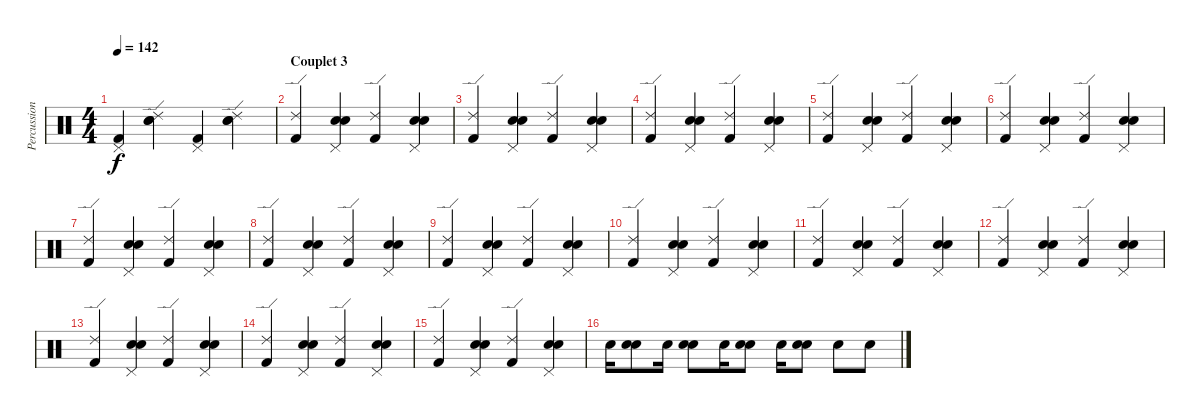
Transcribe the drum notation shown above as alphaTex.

\track ("Percussions" "Percussion") {instrument percussion}
\staff {score}
\articulation defaults
\ts (4 4)
\tempo 142
\clef neutral
\ks c
("Kick (hit) 2" "Pedal Hi-Hat (hit)").4{dy f} ("Snare (hit) 2" "Electric Snare (hit)" "Ride (edge) 2").4 ("Kick (hit) 2" "Pedal Hi-Hat (hit)").4 ("Snare (hit) 2" "Electric Snare (hit)" "Ride (edge) 2").4 |
\section ("" "Couplet 3")
("Kick (hit) 2" "Ride (edge) 2").4 ("Snare (hit) 2" "Electric Snare (hit)" "Pedal Hi-Hat (hit)").4 ("Kick (hit) 2" "Ride (edge) 2").4 ("Snare (hit) 2" "Electric Snare (hit)" "Pedal Hi-Hat (hit)").4 |
("Kick (hit) 2" "Ride (edge) 2").4 ("Snare (hit) 2" "Electric Snare (hit)" "Pedal Hi-Hat (hit)").4 ("Kick (hit) 2" "Ride (edge) 2").4 ("Snare (hit) 2" "Electric Snare (hit)" "Pedal Hi-Hat (hit)").4 |
("Kick (hit) 2" "Ride (edge) 2").4 ("Snare (hit) 2" "Electric Snare (hit)" "Pedal Hi-Hat (hit)").4 ("Kick (hit) 2" "Ride (edge) 2").4 ("Snare (hit) 2" "Electric Snare (hit)" "Pedal Hi-Hat (hit)").4 |
("Kick (hit) 2" "Ride (edge) 2").4 ("Snare (hit) 2" "Electric Snare (hit)" "Pedal Hi-Hat (hit)").4 ("Kick (hit) 2" "Ride (edge) 2").4 ("Snare (hit) 2" "Electric Snare (hit)" "Pedal Hi-Hat (hit)").4 |
("Kick (hit) 2" "Ride (edge) 2").4 ("Snare (hit) 2" "Electric Snare (hit)" "Pedal Hi-Hat (hit)").4 ("Kick (hit) 2" "Ride (edge) 2").4 ("Snare (hit) 2" "Electric Snare (hit)" "Pedal Hi-Hat (hit)").4 |
("Kick (hit) 2" "Ride (edge) 2").4 ("Snare (hit) 2" "Electric Snare (hit)" "Pedal Hi-Hat (hit)").4 ("Kick (hit) 2" "Ride (edge) 2").4 ("Snare (hit) 2" "Electric Snare (hit)" "Pedal Hi-Hat (hit)").4 |
("Kick (hit) 2" "Ride (edge) 2").4 ("Snare (hit) 2" "Electric Snare (hit)" "Pedal Hi-Hat (hit)").4 ("Kick (hit) 2" "Ride (edge) 2").4 ("Snare (hit) 2" "Electric Snare (hit)" "Pedal Hi-Hat (hit)").4 |
("Kick (hit) 2" "Ride (edge) 2").4 ("Snare (hit) 2" "Electric Snare (hit)" "Pedal Hi-Hat (hit)").4 ("Kick (hit) 2" "Ride (edge) 2").4 ("Snare (hit) 2" "Electric Snare (hit)" "Pedal Hi-Hat (hit)").4 |
("Kick (hit) 2" "Ride (edge) 2").4 ("Snare (hit) 2" "Electric Snare (hit)" "Pedal Hi-Hat (hit)").4 ("Kick (hit) 2" "Ride (edge) 2").4 ("Snare (hit) 2" "Electric Snare (hit)" "Pedal Hi-Hat (hit)").4 |
("Kick (hit) 2" "Ride (edge) 2").4 ("Snare (hit) 2" "Electric Snare (hit)" "Pedal Hi-Hat (hit)").4 ("Kick (hit) 2" "Ride (edge) 2").4 ("Snare (hit) 2" "Electric Snare (hit)" "Pedal Hi-Hat (hit)").4 |
("Kick (hit) 2" "Ride (edge) 2").4 ("Snare (hit) 2" "Electric Snare (hit)" "Pedal Hi-Hat (hit)").4 ("Kick (hit) 2" "Ride (edge) 2").4 ("Snare (hit) 2" "Electric Snare (hit)" "Pedal Hi-Hat (hit)").4 |
("Kick (hit) 2" "Ride (edge) 2").4 ("Snare (hit) 2" "Electric Snare (hit)" "Pedal Hi-Hat (hit)").4 ("Kick (hit) 2" "Ride (edge) 2").4 ("Snare (hit) 2" "Electric Snare (hit)" "Pedal Hi-Hat (hit)").4 |
("Kick (hit) 2" "Ride (edge) 2").4 ("Snare (hit) 2" "Electric Snare (hit)" "Pedal Hi-Hat (hit)").4 ("Kick (hit) 2" "Ride (edge) 2").4 ("Snare (hit) 2" "Electric Snare (hit)" "Pedal Hi-Hat (hit)").4 |
("Kick (hit) 2" "Ride (edge) 2").4 ("Snare (hit) 2" "Electric Snare (hit)" "Pedal Hi-Hat (hit)").4 ("Kick (hit) 2" "Ride (edge) 2").4 ("Snare (hit) 2" "Electric Snare (hit)" "Pedal Hi-Hat (hit)").4 |
"Snare (hit) 2".16 ("Snare (hit) 2" "Electric Snare (hit)").8 "Snare (hit) 2".16 ("Snare (hit) 2" "Electric Snare (hit)").8 "Snare (hit) 2".16 ("Snare (hit) 2" "Electric Snare (hit)").8 "Snare (hit) 2".16 ("Snare (hit) 2" "Electric Snare (hit)").8 "Electric Snare (hit)".8 "Electric Snare (hit)".8
